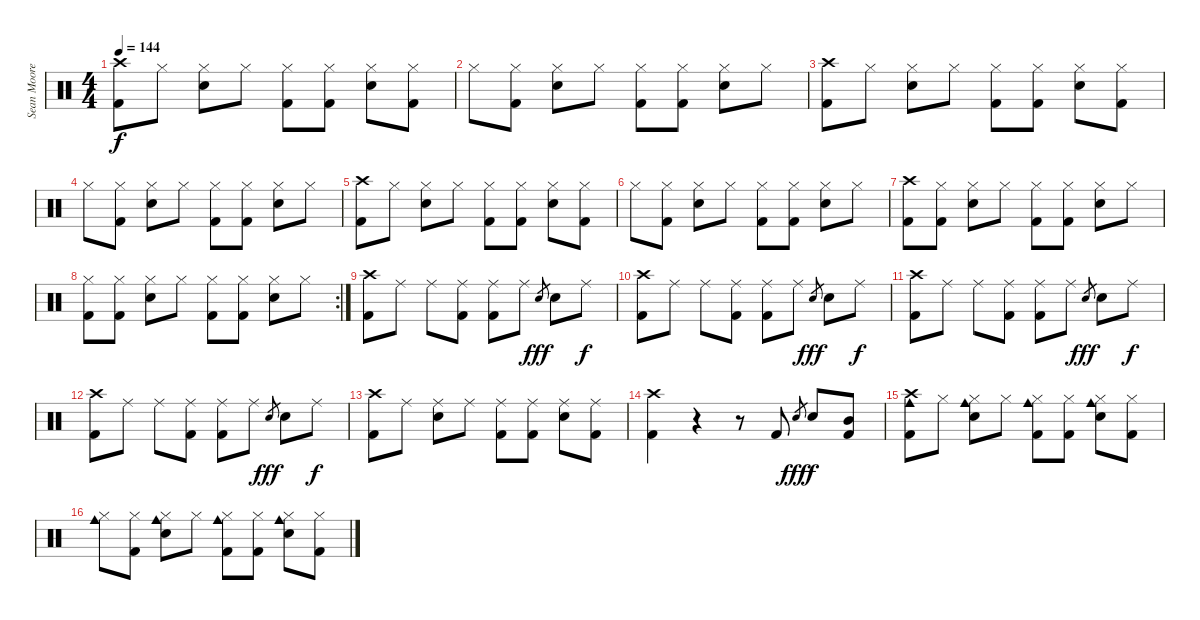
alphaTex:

\track ("Sean Moore" "Sean Moore") {instrument percussion}
\staff {score}
\articulation defaults
\ts (4 4)
\tempo 144
\clef neutral
\ks c
("Crash high (hit)" "Kick (hit) 2").8{dy f} "Hi-Hat (closed)".8 ("Hi-Hat (closed)" "Snare (hit) 2").8 "Hi-Hat (closed)".8 ("Hi-Hat (closed)" "Kick (hit) 2").8 ("Hi-Hat (closed)" "Kick (hit) 2").8 ("Hi-Hat (closed)" "Snare (hit) 2").8 ("Hi-Hat (closed)" "Kick (hit) 2").8 |
"Hi-Hat (closed)".8 ("Hi-Hat (closed)" "Kick (hit) 2").8 ("Hi-Hat (closed)" "Snare (hit) 2").8 "Hi-Hat (closed)".8 ("Hi-Hat (closed)" "Kick (hit) 2").8 ("Hi-Hat (closed)" "Kick (hit) 2").8 ("Hi-Hat (closed)" "Snare (hit) 2").8 "Hi-Hat (closed)".8 |
("Crash high (hit)" "Kick (hit) 2").8 "Hi-Hat (closed)".8 ("Hi-Hat (closed)" "Snare (hit) 2").8 "Hi-Hat (closed)".8 ("Hi-Hat (closed)" "Kick (hit) 2").8 ("Hi-Hat (closed)" "Kick (hit) 2").8 ("Hi-Hat (closed)" "Snare (hit) 2").8 ("Hi-Hat (closed)" "Kick (hit) 2").8 |
"Hi-Hat (closed)".8 ("Hi-Hat (closed)" "Kick (hit) 2").8 ("Hi-Hat (closed)" "Snare (hit) 2").8 "Hi-Hat (closed)".8 ("Hi-Hat (closed)" "Kick (hit) 2").8 ("Hi-Hat (closed)" "Kick (hit) 2").8 ("Hi-Hat (closed)" "Snare (hit) 2").8 "Hi-Hat (closed)".8 |
("Crash high (hit)" "Kick (hit) 2").8 "Hi-Hat (closed)".8 ("Hi-Hat (closed)" "Snare (hit) 2").8 "Hi-Hat (closed)".8 ("Hi-Hat (closed)" "Kick (hit) 2").8 ("Hi-Hat (closed)" "Kick (hit) 2").8 ("Hi-Hat (closed)" "Snare (hit) 2").8 ("Hi-Hat (closed)" "Kick (hit) 2").8 |
"Hi-Hat (closed)".8 ("Hi-Hat (closed)" "Kick (hit) 2").8 ("Hi-Hat (closed)" "Snare (hit) 2").8 "Hi-Hat (closed)".8 ("Hi-Hat (closed)" "Kick (hit) 2").8 ("Hi-Hat (closed)" "Kick (hit) 2").8 ("Hi-Hat (closed)" "Snare (hit) 2").8 "Hi-Hat (closed)".8 |
("Crash high (hit)" "Kick (hit) 2").8 ("Hi-Hat (closed)" "Kick (hit) 2").8 ("Hi-Hat (closed)" "Snare (hit) 2").8 "Hi-Hat (closed)".8 ("Hi-Hat (closed)" "Kick (hit) 2").8 ("Hi-Hat (closed)" "Kick (hit) 2").8 ("Hi-Hat (closed)" "Snare (hit) 2").8 "Hi-Hat (closed)".8 |
\rc 2
("Hi-Hat (closed)" "Kick (hit) 2").8 ("Hi-Hat (closed)" "Kick (hit) 2").8 ("Hi-Hat (closed)" "Snare (hit) 2").8 "Hi-Hat (closed)".8 ("Hi-Hat (closed)" "Kick (hit) 2").8 ("Hi-Hat (closed)" "Kick (hit) 2").8 ("Hi-Hat (closed)" "Snare (hit) 2").8 "Hi-Hat (closed)".8 |
("Crash high (hit)" "Kick (hit) 2").8 "Ride (middle)".8 "Ride (middle)".8 ("Ride (middle)" "Kick (hit) 2").8 ("Ride (middle)" "Kick (hit) 2").8 "Ride (middle)".8 "Snare (hit) 2".8{gr dy fff} "Snare (hit) 2".8 "Ride (middle)".8{dy f} |
("Crash high (hit)" "Kick (hit) 2").8 "Ride (middle)".8 "Ride (middle)".8 ("Ride (middle)" "Kick (hit) 2").8 ("Ride (middle)" "Kick (hit) 2").8 "Ride (middle)".8 "Snare (hit) 2".8{gr dy fff} "Snare (hit) 2".8 "Ride (middle)".8{dy f} |
("Crash high (hit)" "Kick (hit) 2").8 "Ride (middle)".8 "Ride (middle)".8 ("Ride (middle)" "Kick (hit) 2").8 ("Ride (middle)" "Kick (hit) 2").8 "Ride (middle)".8 "Snare (hit) 2".8{gr dy fff} "Snare (hit) 2".8 "Ride (middle)".8{dy f} |
("Crash high (hit)" "Kick (hit) 2").8 "Ride (middle)".8 "Ride (middle)".8 ("Ride (middle)" "Kick (hit) 2").8 ("Ride (middle)" "Kick (hit) 2").8 "Ride (middle)".8 "Snare (hit) 2".8{gr dy fff} "Snare (hit) 2".8 "Ride (middle)".8{dy f} |
("Crash high (hit)" "Kick (hit) 2").8 "Ride (middle)".8 ("Ride (middle)" "Snare (hit) 2").8 "Ride (middle)".8 ("Ride (middle)" "Kick (hit) 2").8 ("Ride (middle)" "Kick (hit) 2").8 ("Ride (middle)" "Snare (hit) 2").8 ("Ride (middle)" "Kick (hit) 2").8 |
("Crash high (hit)" "Kick (hit) 2").4 r.4 r.8 "Kick (hit) 2".8 "Snare (hit) 2".8{gr dy fff} "Snare (hit) 2".8{dy f} ("Kick (hit) 2" "Mid Tom (hit)").8 |
("Crash high (hit)" "Kick (hit) 2" "Cowbell medium (hit)").8 "Hi-Hat (closed)".8 ("Hi-Hat (closed)" "Snare (hit) 2" "Cowbell medium (hit)").8 "Hi-Hat (closed)".8 ("Hi-Hat (closed)" "Kick (hit) 2" "Cowbell medium (hit)").8 ("Hi-Hat (closed)" "Kick (hit) 2").8 ("Hi-Hat (closed)" "Snare (hit) 2" "Cowbell medium (hit)").8 ("Hi-Hat (closed)" "Kick (hit) 2").8 |
("Hi-Hat (closed)" "Cowbell medium (hit)").8 ("Hi-Hat (closed)" "Kick (hit) 2").8 ("Hi-Hat (closed)" "Snare (hit) 2" "Cowbell medium (hit)").8 "Hi-Hat (closed)".8 ("Hi-Hat (closed)" "Kick (hit) 2" "Cowbell medium (hit)").8 ("Hi-Hat (closed)" "Kick (hit) 2").8 ("Hi-Hat (closed)" "Snare (hit) 2" "Cowbell medium (hit)").8 ("Hi-Hat (closed)" "Kick (hit) 2").8
